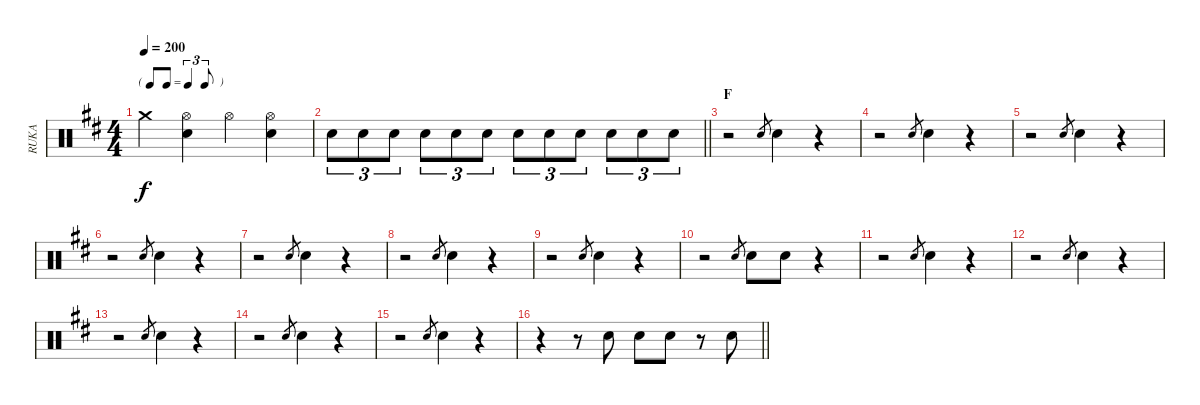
\track ("RUKA" "RUKA") {instrument percussion}
\staff {score}
\articulation defaults
\ts (4 4)
\tf triplet8th
\tempo 200
\clef neutral
\ks d "Crash medium (hit)".4{dy f}
("Hi-Hat (open)" "Snare (hit) 2").4 "Hi-Hat (open)".4 ("Hi-Hat (open)" "Snare (hit) 2").4 |
\barLineRight lightlight "Snare (hit) 2".8{tu (3 2)} "Snare (hit) 2".8{tu (3 2)} "Snare (hit) 2".8{tu (3 2)} "Snare (hit) 2".8{tu (3 2)} "Snare (hit) 2".8{tu (3 2)} "Snare (hit) 2".8{tu (3 2)} "Snare (hit) 2".8{tu (3 2)} "Snare (hit) 2".8{tu (3 2)} "Snare (hit) 2".8{tu (3 2)} "Snare (hit) 2".8{tu (3 2)} "Snare (hit) 2".8{tu (3 2)} "Snare (hit) 2".8{tu (3 2)}
|
\section ("" "F")
r.2 "Snare (hit) 2".8{gr} "Snare (hit) 2".4 r.4 |
r.2 "Snare (hit) 2".8{gr} "Snare (hit) 2".4 r.4 |
r.2 "Snare (hit) 2".8{gr} "Snare (hit) 2".4 r.4 |
r.2 "Snare (hit) 2".8{gr} "Snare (hit) 2".4 r.4 |
r.2 "Snare (hit) 2".8{gr} "Snare (hit) 2".4 r.4 |
r.2 "Snare (hit) 2".8{gr} "Snare (hit) 2".4 r.4 |
r.2 "Snare (hit) 2".8{gr} "Snare (hit) 2".4 r.4 |
r.2 "Snare (hit) 2".8{gr} "Snare (hit) 2".8 "Snare (hit) 2".8 r.4 |
r.2 "Snare (hit) 2".8{gr} "Snare (hit) 2".4 r.4 |
r.2 "Snare (hit) 2".8{gr} "Snare (hit) 2".4 r.4 |
r.2 "Snare (hit) 2".8{gr} "Snare (hit) 2".4 r.4 |
r.2 "Snare (hit) 2".8{gr} "Snare (hit) 2".4 r.4 |
r.2 "Snare (hit) 2".8{gr} "Snare (hit) 2".4 r.4 |
\barLineRight lightlight
r.4 r.8 "Snare (hit) 2".8 "Snare (hit) 2".8 "Snare (hit) 2".8 r.8 "Snare (hit) 2".8
